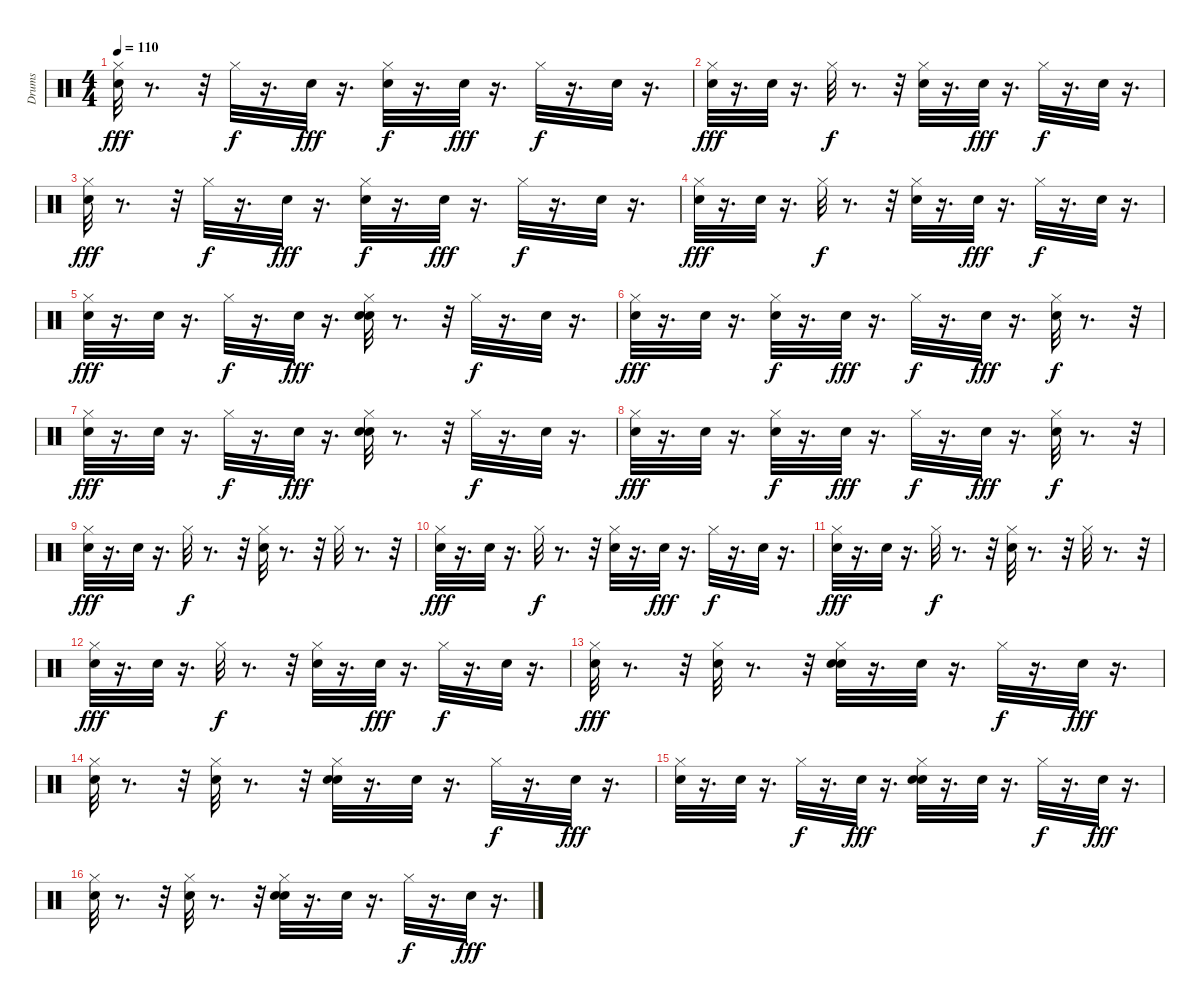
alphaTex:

\track ("Drums" "Drums") {instrument percussion}
\staff {score}
\articulation defaults
\ts (4 4)
\tempo 110
\clef neutral
\ks c
("Snare (hit)" "Hi-Hat (closed)").32{dy fff} r.8{d} r.32 "Hi-Hat (closed)".32{dy f} r.16{d} "Snare (hit)".32{dy fff} r.16{d} ("Snare (hit) 2" "Hi-Hat (closed)").32{dy f} r.16{d} "Snare (hit)".32{dy fff} r.16{d} "Hi-Hat (closed)".32{dy f} r.16{d} "Snare (hit) 2".32 r.16{d} |
("Snare (hit)" "Hi-Hat (closed)").32{dy fff} r.16{d} "Snare (hit)".32 r.16{d} "Hi-Hat (closed)".32{dy f} r.8{d} r.32 ("Snare (hit) 2" "Hi-Hat (closed)").32 r.16{d} "Snare (hit)".32{dy fff} r.16{d} "Hi-Hat (closed)".32{dy f} r.16{d} "Snare (hit) 2".32 r.16{d} |
("Snare (hit)" "Hi-Hat (closed)").32{dy fff} r.8{d} r.32 "Hi-Hat (closed)".32{dy f} r.16{d} "Snare (hit)".32{dy fff} r.16{d} ("Snare (hit) 2" "Hi-Hat (closed)").32{dy f} r.16{d} "Snare (hit)".32{dy fff} r.16{d} "Hi-Hat (closed)".32{dy f} r.16{d} "Snare (hit) 2".32 r.16{d} |
("Snare (hit)" "Hi-Hat (closed)").32{dy fff} r.16{d} "Snare (hit)".32 r.16{d} "Hi-Hat (closed)".32{dy f} r.8{d} r.32 ("Snare (hit) 2" "Hi-Hat (closed)").32 r.16{d} "Snare (hit)".32{dy fff} r.16{d} "Hi-Hat (closed)".32{dy f} r.16{d} "Snare (hit) 2".32 r.16{d} |
("Snare (hit)" "Hi-Hat (closed)").32{dy fff} r.16{d} "Snare (hit)".32 r.16{d} "Hi-Hat (closed)".32{dy f} r.16{d} "Snare (hit)".32{dy fff} r.16{d} ("Snare (hit)" "Snare (hit) 2" "Hi-Hat (closed)").32 r.8{d} r.32 "Hi-Hat (closed)".32{dy f} r.16{d} "Snare (hit) 2".32 r.16{d} |
("Snare (hit)" "Hi-Hat (closed)").32{dy fff} r.16{d} "Snare (hit)".32 r.16{d} ("Snare (hit) 2" "Hi-Hat (closed)").32{dy f} r.16{d} "Snare (hit)".32{dy fff} r.16{d} "Hi-Hat (closed)".32{dy f} r.16{d} "Snare (hit)".32{dy fff} r.16{d} ("Snare (hit) 2" "Hi-Hat (closed)").32{dy f} r.8{d} r.32 |
("Snare (hit)" "Hi-Hat (closed)").32{dy fff} r.16{d} "Snare (hit)".32 r.16{d} "Hi-Hat (closed)".32{dy f} r.16{d} "Snare (hit)".32{dy fff} r.16{d} ("Snare (hit)" "Snare (hit) 2" "Hi-Hat (closed)").32 r.8{d} r.32 "Hi-Hat (closed)".32{dy f} r.16{d} "Snare (hit) 2".32 r.16{d} |
("Snare (hit)" "Hi-Hat (closed)").32{dy fff} r.16{d} "Snare (hit)".32 r.16{d} ("Snare (hit) 2" "Hi-Hat (closed)").32{dy f} r.16{d} "Snare (hit)".32{dy fff} r.16{d} "Hi-Hat (closed)".32{dy f} r.16{d} "Snare (hit)".32{dy fff} r.16{d} ("Snare (hit) 2" "Hi-Hat (closed)").32{dy f} r.8{d} r.32 |
("Snare (hit)" "Hi-Hat (closed)").32{dy fff} r.16{d} "Snare (hit)".32 r.16{d} "Hi-Hat (closed)".32{dy f} r.8{d} r.32 ("Snare (hit) 2" "Hi-Hat (closed)").32 r.8{d} r.32 "Hi-Hat (closed)".32 r.8{d} r.32 |
("Snare (hit)" "Hi-Hat (closed)").32{dy fff} r.16{d} "Snare (hit)".32 r.16{d} "Hi-Hat (closed)".32{dy f} r.8{d} r.32 ("Snare (hit) 2" "Hi-Hat (closed)").32 r.16{d} "Snare (hit)".32{dy fff} r.16{d} "Hi-Hat (closed)".32{dy f} r.16{d} "Snare (hit) 2".32 r.16{d} |
("Snare (hit)" "Hi-Hat (closed)").32{dy fff} r.16{d} "Snare (hit)".32 r.16{d} "Hi-Hat (closed)".32{dy f} r.8{d} r.32 ("Snare (hit) 2" "Hi-Hat (closed)").32 r.8{d} r.32 "Hi-Hat (closed)".32 r.8{d} r.32 |
("Snare (hit)" "Hi-Hat (closed)").32{dy fff} r.16{d} "Snare (hit)".32 r.16{d} "Hi-Hat (closed)".32{dy f} r.8{d} r.32 ("Snare (hit) 2" "Hi-Hat (closed)").32 r.16{d} "Snare (hit)".32{dy fff} r.16{d} "Hi-Hat (closed)".32{dy f} r.16{d} "Snare (hit) 2".32 r.16{d} |
("Snare (hit)" "Hi-Hat (closed)").32{dy fff} r.8{d} r.32 ("Snare (hit)" "Hi-Hat (closed)").32 r.8{d} r.32 ("Snare (hit)" "Snare (hit) 2" "Hi-Hat (closed)").32 r.16{d} "Snare (hit)".32 r.16{d} "Hi-Hat (closed)".32{dy f} r.16{d} "Snare (hit)".32{dy fff} r.16{d} |
("Snare (hit)" "Hi-Hat (closed)").32 r.8{d} r.32 ("Snare (hit)" "Hi-Hat (closed)").32 r.8{d} r.32 ("Snare (hit)" "Snare (hit) 2" "Hi-Hat (closed)").32 r.16{d} "Snare (hit)".32 r.16{d} "Hi-Hat (closed)".32{dy f} r.16{d} "Snare (hit)".32{dy fff} r.16{d} |
("Snare (hit)" "Hi-Hat (closed)").32 r.16{d} "Snare (hit)".32 r.16{d} "Hi-Hat (closed)".32{dy f} r.16{d} "Snare (hit)".32{dy fff} r.16{d} ("Snare (hit)" "Snare (hit) 2" "Hi-Hat (closed)").32 r.16{d} "Snare (hit)".32 r.16{d} "Hi-Hat (closed)".32{dy f} r.16{d} "Snare (hit)".32{dy fff} r.16{d} |
("Snare (hit)" "Hi-Hat (closed)").32 r.8{d} r.32 ("Snare (hit)" "Hi-Hat (closed)").32 r.8{d} r.32 ("Snare (hit)" "Snare (hit) 2" "Hi-Hat (closed)").32 r.16{d} "Snare (hit)".32 r.16{d} "Hi-Hat (closed)".32{dy f} r.16{d} "Snare (hit)".32{dy fff} r.16{d}
